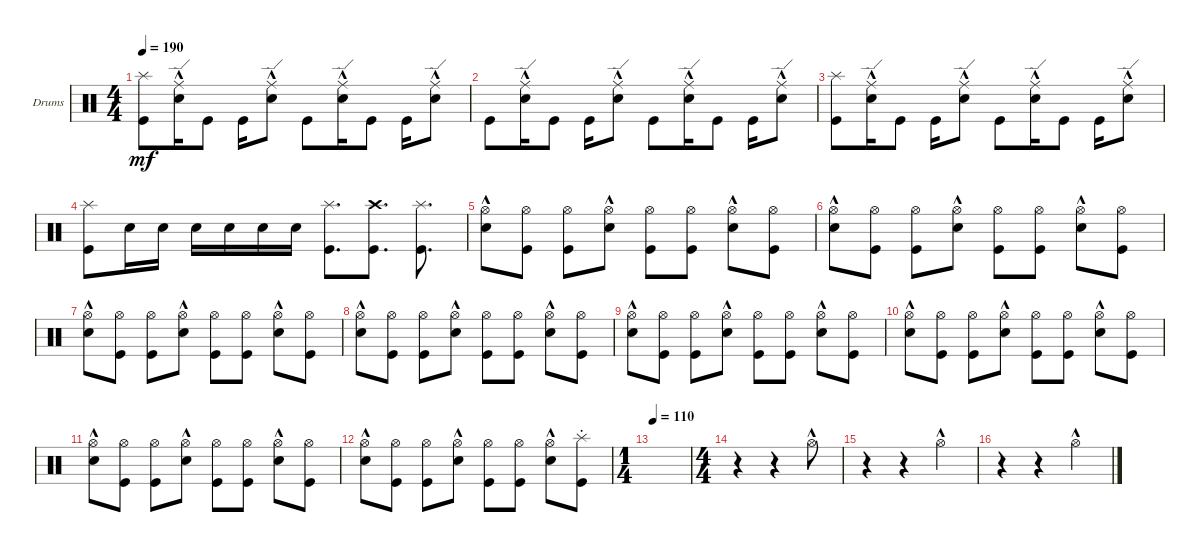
\bracketExtendMode groupsimilarinstruments
\firstSystemTrackNameOrientation horizontal
\otherSystemsTrackNameOrientation horizontal
\track ("Drumkit" "Drums") {instrument percussion}
\staff {score}
\articulation defaults
\ts (4 4)
\tempo 190
\clef neutral
\ks c
("Kick (hit)" "Splash (hit)").8{dy mf} ("Snare (hit) 2"{hac} "Ride (edge)").16 "Kick (hit)".8 "Kick (hit)".16 ("Snare (hit) 2"{hac} "Ride (edge)").8 "Kick (hit)".8 ("Snare (hit) 2"{hac} "Ride (edge)").16 "Kick (hit)".8 "Kick (hit)".16 ("Snare (hit) 2"{hac} "Ride (edge)").8 |
"Kick (hit)".8 ("Snare (hit) 2"{hac} "Ride (edge)").16 "Kick (hit)".8 "Kick (hit)".16 ("Snare (hit) 2"{hac} "Ride (edge)").8 "Kick (hit)".8 ("Snare (hit) 2"{hac} "Ride (edge)").16 "Kick (hit)".8 "Kick (hit)".16 ("Snare (hit) 2"{hac} "Ride (edge)").8 |
("Kick (hit)" "Splash (hit)").8 ("Snare (hit) 2"{hac} "Ride (edge)").16 "Kick (hit)".8 "Kick (hit)".16 ("Snare (hit) 2"{hac} "Ride (edge)").8 "Kick (hit)".8 ("Snare (hit) 2"{hac} "Ride (edge)").16 "Kick (hit)".8 "Kick (hit)".16 ("Snare (hit) 2"{hac} "Ride (edge)").8 |
("Kick (hit)" "Splash (hit)").8 "Snare (hit) 2".16 "Snare (hit) 2".16 "Snare (hit) 2".16 "Snare (hit) 2".16 "Snare (hit) 2".16 "Snare (hit) 2".16 ("Kick (hit)" "Splash (hit)").8{d} ("Kick (hit)" "Crash high (hit)").8{d} ("Kick (hit)" "Splash (hit)").8{d} |
("Snare (hit) 2"{hac} "Hi-Hat (open)").8 ("Hi-Hat (open)" "Kick (hit)").8 ("Hi-Hat (open)" "Kick (hit)").8 ("Hi-Hat (open)" "Snare (hit) 2"{hac}).8 ("Hi-Hat (open)" "Kick (hit)").8 ("Kick (hit)" "Hi-Hat (open)").8 ("Snare (hit) 2"{hac} "Hi-Hat (open)").8 ("Hi-Hat (open)" "Kick (hit)").8 |
("Snare (hit) 2"{hac} "Hi-Hat (open)").8 ("Hi-Hat (open)" "Kick (hit)").8 ("Hi-Hat (open)" "Kick (hit)").8 ("Hi-Hat (open)" "Snare (hit) 2"{hac}).8 ("Hi-Hat (open)" "Kick (hit)").8 ("Kick (hit)" "Hi-Hat (open)").8 ("Snare (hit) 2"{hac} "Hi-Hat (open)").8 ("Hi-Hat (open)" "Kick (hit)").8 |
("Snare (hit) 2"{hac} "Hi-Hat (open)").8 ("Hi-Hat (open)" "Kick (hit)").8 ("Hi-Hat (open)" "Kick (hit)").8 ("Hi-Hat (open)" "Snare (hit) 2"{hac}).8 ("Hi-Hat (open)" "Kick (hit)").8 ("Kick (hit)" "Hi-Hat (open)").8 ("Snare (hit) 2"{hac} "Hi-Hat (open)").8 ("Hi-Hat (open)" "Kick (hit)").8 |
("Snare (hit) 2"{hac} "Hi-Hat (open)").8 ("Hi-Hat (open)" "Kick (hit)").8 ("Hi-Hat (open)" "Kick (hit)").8 ("Hi-Hat (open)" "Snare (hit) 2"{hac}).8 ("Hi-Hat (open)" "Kick (hit)").8 ("Kick (hit)" "Hi-Hat (open)").8 ("Snare (hit) 2"{hac} "Hi-Hat (open)").8 ("Hi-Hat (open)" "Kick (hit)").8 |
("Snare (hit) 2"{hac} "Hi-Hat (open)").8 ("Hi-Hat (open)" "Kick (hit)").8 ("Hi-Hat (open)" "Kick (hit)").8 ("Hi-Hat (open)" "Snare (hit) 2"{hac}).8 ("Hi-Hat (open)" "Kick (hit)").8 ("Kick (hit)" "Hi-Hat (open)").8 ("Snare (hit) 2"{hac} "Hi-Hat (open)").8 ("Hi-Hat (open)" "Kick (hit)").8 |
("Snare (hit) 2"{hac} "Hi-Hat (open)").8 ("Hi-Hat (open)" "Kick (hit)").8 ("Hi-Hat (open)" "Kick (hit)").8 ("Hi-Hat (open)" "Snare (hit) 2"{hac}).8 ("Hi-Hat (open)" "Kick (hit)").8 ("Kick (hit)" "Hi-Hat (open)").8 ("Snare (hit) 2"{hac} "Hi-Hat (open)").8 ("Hi-Hat (open)" "Kick (hit)").8 |
("Snare (hit) 2"{hac} "Hi-Hat (open)").8 ("Hi-Hat (open)" "Kick (hit)").8 ("Hi-Hat (open)" "Kick (hit)").8 ("Hi-Hat (open)" "Snare (hit) 2"{hac}).8 ("Hi-Hat (open)" "Kick (hit)").8 ("Kick (hit)" "Hi-Hat (open)").8 ("Snare (hit) 2"{hac} "Hi-Hat (open)").8 ("Hi-Hat (open)" "Kick (hit)").8 |
("Snare (hit) 2"{hac} "Hi-Hat (open)").8 ("Hi-Hat (open)" "Kick (hit)").8 ("Hi-Hat (open)" "Kick (hit)").8 ("Hi-Hat (open)" "Snare (hit) 2"{hac}).8 ("Hi-Hat (open)" "Kick (hit)").8 ("Kick (hit)" "Hi-Hat (open)").8 ("Snare (hit) 2"{hac} "Hi-Hat (open)").8 ("Kick (hit)" "Splash (hit)"{st}).8 |
\ts (1 4)
\tempo 110
|
\ts (4 4)
r.4 r.4 "Hi-Hat (open)"{hac}.8 |
r.4 r.4 "Hi-Hat (open)"{hac}.4 |
r.4 r.4 "Hi-Hat (open)"{hac}.4
